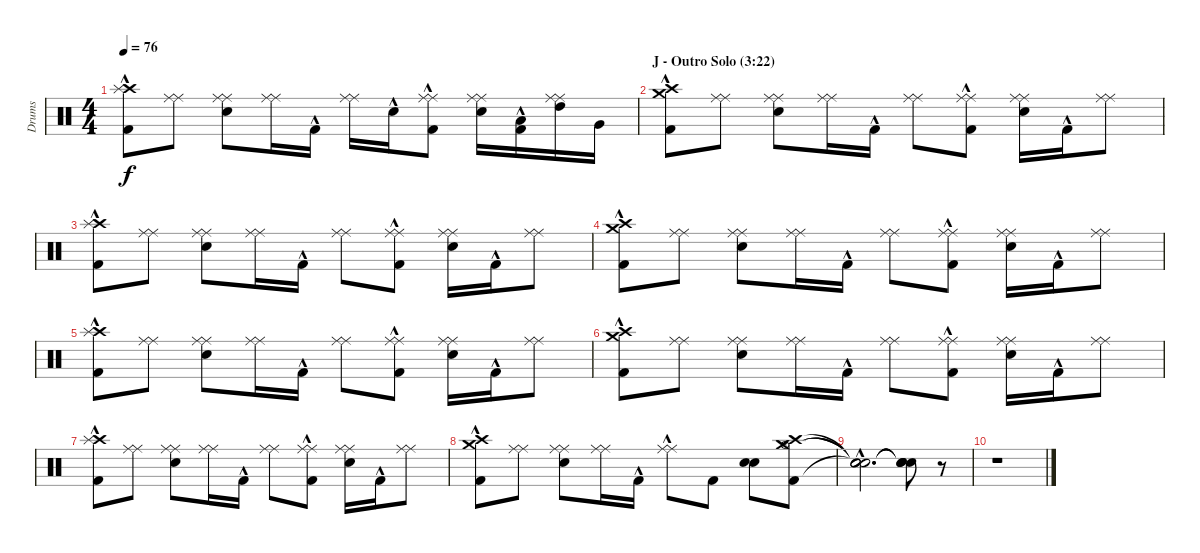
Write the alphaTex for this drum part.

\track ("Drums" "Drums") {instrument percussion}
\staff {score}
\articulation defaults
\ts (4 4)
\tempo 76
\clef neutral
\ks c
("Kick (hit) 2"{hac} "Crash high (hit)" "Splash (hit)").8{dy f} ("Ride (middle)" "Ride (middle)").8 ("Snare (hit) 2" "Ride (middle)" "Ride (middle)").8 ("Ride (middle)" "Ride (middle)").16 "Kick (hit) 2"{hac}.16 ("Ride (middle)" "Ride (middle)").16 "Snare (hit) 2"{hac}.16 ("Kick (hit) 2"{hac} "Ride (middle)" "Ride (middle)").8 ("Snare (hit) 2" "Ride (middle)" "Ride (middle)").16 ("Kick (hit) 2"{hac} "Low Tom (hit)").16 ("High Tom (hit)" "Ride (middle)" "Ride (middle)").16 "Very Low Tom (hit)".16 |
\section ("" "J - Outro Solo (3:22)")
("Kick (hit) 2"{hac} "Crash high (hit)" "Crash medium (hit)").8 ("Ride (middle)" "Ride (middle)").8 ("Snare (hit) 2" "Ride (middle)" "Ride (middle)").8 ("Ride (middle)" "Ride (middle)").16 "Kick (hit) 2"{hac}.16 ("Ride (middle)" "Ride (middle)").8 ("Kick (hit) 2"{hac} "Ride (middle)" "Ride (middle)").8 ("Snare (hit) 2" "Ride (middle)" "Ride (middle)").16 "Kick (hit) 2"{hac}.16 ("Ride (middle)" "Ride (middle)").8 |
("Kick (hit) 2"{hac} "Crash high (hit)" "Splash (hit)").8 ("Ride (middle)" "Ride (middle)").8 ("Snare (hit) 2" "Ride (middle)" "Ride (middle)").8 ("Ride (middle)" "Ride (middle)").16 "Kick (hit) 2"{hac}.16 ("Ride (middle)" "Ride (middle)").8 ("Kick (hit) 2"{hac} "Ride (middle)" "Ride (middle)").8 ("Snare (hit) 2" "Ride (middle)" "Ride (middle)").16 "Kick (hit) 2"{hac}.16 ("Ride (middle)" "Ride (middle)").8 |
("Kick (hit) 2"{hac} "Crash high (hit)" "Crash medium (hit)").8 ("Ride (middle)" "Ride (middle)").8 ("Snare (hit) 2" "Ride (middle)" "Ride (middle)").8 ("Ride (middle)" "Ride (middle)").16 "Kick (hit) 2"{hac}.16 ("Ride (middle)" "Ride (middle)").8 ("Kick (hit) 2"{hac} "Ride (middle)" "Ride (middle)").8 ("Snare (hit) 2" "Ride (middle)" "Ride (middle)").16 "Kick (hit) 2"{hac}.16 ("Ride (middle)" "Ride (middle)").8 |
("Kick (hit) 2"{hac} "Crash high (hit)" "Splash (hit)").8 ("Ride (middle)" "Ride (middle)").8 ("Snare (hit) 2" "Ride (middle)" "Ride (middle)").8 ("Ride (middle)" "Ride (middle)").16 "Kick (hit) 2"{hac}.16 ("Ride (middle)" "Ride (middle)").8 ("Kick (hit) 2"{hac} "Ride (middle)" "Ride (middle)").8 ("Snare (hit) 2" "Ride (middle)" "Ride (middle)").16 "Kick (hit) 2"{hac}.16 ("Ride (middle)" "Ride (middle)").8 |
("Kick (hit) 2"{hac} "Crash high (hit)" "Crash medium (hit)").8 ("Ride (middle)" "Ride (middle)").8 ("Snare (hit) 2" "Ride (middle)" "Ride (middle)").8 ("Ride (middle)" "Ride (middle)").16 "Kick (hit) 2"{hac}.16 ("Ride (middle)" "Ride (middle)").8 ("Kick (hit) 2"{hac} "Ride (middle)" "Ride (middle)").8 ("Snare (hit) 2" "Ride (middle)" "Ride (middle)").16 "Kick (hit) 2"{hac}.16 ("Ride (middle)" "Ride (middle)").8 |
("Kick (hit) 2"{hac} "Crash high (hit)" "Splash (hit)").8 ("Ride (middle)" "Ride (middle)").8 ("Snare (hit) 2" "Ride (middle)" "Ride (middle)").8 ("Ride (middle)" "Ride (middle)").16 "Kick (hit) 2"{hac}.16 ("Ride (middle)" "Ride (middle)").8 ("Kick (hit) 2"{hac} "Ride (middle)" "Ride (middle)").8 ("Snare (hit) 2" "Ride (middle)" "Ride (middle)").16 "Kick (hit) 2"{hac}.16 ("Ride (middle)" "Ride (middle)").8 |
("Kick (hit) 2"{hac} "Crash high (hit)"{hac} "Crash medium (hit)"{hac}).8 ("Ride (middle)" "Ride (middle)").8 ("Snare (hit) 2" "Ride (middle)" "Ride (middle)").8 ("Ride (middle)" "Ride (middle)").16 "Kick (hit) 2"{hac}.16 ("Ride (middle)"{hac} "Ride (middle)"{hac}).8 "Kick (hit) 2".8 ("Electric Snare (hit)" "Snare (hit) 2").8 ("Kick (hit) 2" "Hi-Hat (open)" "Crash high (hit)" "Crash medium (hit)").8 |
("Snare (hit)"{hac t} "Snare (hit)"{hac t} "Snare (hit)"{hac t} "Snare (hit)"{hac t}).2{d} ("Snare (hit)"{t} "Snare (hit)"{t} "Snare (hit)"{t} "Snare (hit)"{t}).8 r.8 |
r.1
